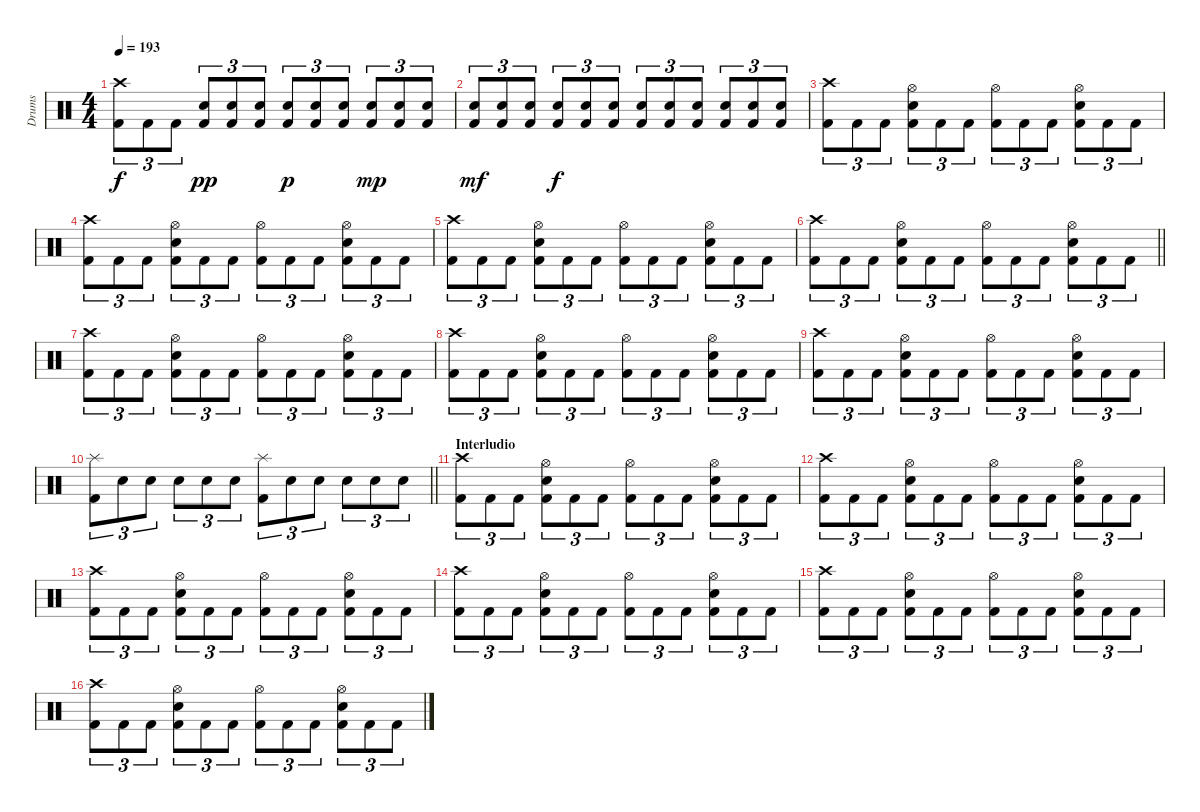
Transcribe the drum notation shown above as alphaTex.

\track ("Drums" "Drums") {instrument percussion}
\staff {score}
\articulation defaults
\ts (4 4)
\tempo 193
\clef neutral
\ks c
("Crash high (hit)" "Kick (hit) 2").8{tu (3 2) dy f} "Kick (hit) 2".8{tu (3 2)} "Kick (hit) 2".8{tu (3 2)} ("Electric Snare (hit)" "Kick (hit) 2").8{tu (3 2) dy pp} ("Electric Snare (hit)" "Kick (hit) 2").8{tu (3 2)} ("Electric Snare (hit)" "Kick (hit) 2").8{tu (3 2)} ("Electric Snare (hit)" "Kick (hit) 2").8{tu (3 2) dy p} ("Electric Snare (hit)" "Kick (hit) 2").8{tu (3 2)} ("Electric Snare (hit)" "Kick (hit) 2").8{tu (3 2)} ("Electric Snare (hit)" "Kick (hit) 2").8{tu (3 2) dy mp} ("Electric Snare (hit)" "Kick (hit) 2").8{tu (3 2)} ("Electric Snare (hit)" "Kick (hit) 2").8{tu (3 2)} |
("Electric Snare (hit)" "Kick (hit) 2").8{tu (3 2) dy mf} ("Electric Snare (hit)" "Kick (hit) 2").8{tu (3 2)} ("Electric Snare (hit)" "Kick (hit) 2").8{tu (3 2)} ("Electric Snare (hit)" "Kick (hit) 2").8{tu (3 2) dy f} ("Electric Snare (hit)" "Kick (hit) 2").8{tu (3 2)} ("Electric Snare (hit)" "Kick (hit) 2").8{tu (3 2)} ("Electric Snare (hit)" "Kick (hit) 2").8{tu (3 2)} ("Electric Snare (hit)" "Kick (hit) 2").8{tu (3 2)} ("Electric Snare (hit)" "Kick (hit) 2").8{tu (3 2)} ("Electric Snare (hit)" "Kick (hit) 2").8{tu (3 2)} ("Electric Snare (hit)" "Kick (hit) 2").8{tu (3 2)} ("Electric Snare (hit)" "Kick (hit) 2").8{tu (3 2)} |
("Crash high (hit)" "Kick (hit) 2").8{tu (3 2)} "Kick (hit) 2".8{tu (3 2)} "Kick (hit) 2".8{tu (3 2)} ("Hi-Hat (open)" "Electric Snare (hit)" "Kick (hit) 2").8{tu (3 2)} "Kick (hit) 2".8{tu (3 2)} "Kick (hit) 2".8{tu (3 2)} ("Hi-Hat (open)" "Kick (hit) 2").8{tu (3 2)} "Kick (hit) 2".8{tu (3 2)} "Kick (hit) 2".8{tu (3 2)} ("Hi-Hat (open)" "Electric Snare (hit)" "Kick (hit) 2").8{tu (3 2)} "Kick (hit) 2".8{tu (3 2)} "Kick (hit) 2".8{tu (3 2)} |
("Crash high (hit)" "Kick (hit) 2").8{tu (3 2)} "Kick (hit) 2".8{tu (3 2)} "Kick (hit) 2".8{tu (3 2)} ("Hi-Hat (open)" "Electric Snare (hit)" "Kick (hit) 2").8{tu (3 2)} "Kick (hit) 2".8{tu (3 2)} "Kick (hit) 2".8{tu (3 2)} ("Hi-Hat (open)" "Kick (hit) 2").8{tu (3 2)} "Kick (hit) 2".8{tu (3 2)} "Kick (hit) 2".8{tu (3 2)} ("Hi-Hat (open)" "Electric Snare (hit)" "Kick (hit) 2").8{tu (3 2)} "Kick (hit) 2".8{tu (3 2)} "Kick (hit) 2".8{tu (3 2)} |
("Crash high (hit)" "Kick (hit) 2").8{tu (3 2)} "Kick (hit) 2".8{tu (3 2)} "Kick (hit) 2".8{tu (3 2)} ("Hi-Hat (open)" "Electric Snare (hit)" "Kick (hit) 2").8{tu (3 2)} "Kick (hit) 2".8{tu (3 2)} "Kick (hit) 2".8{tu (3 2)} ("Hi-Hat (open)" "Kick (hit) 2").8{tu (3 2)} "Kick (hit) 2".8{tu (3 2)} "Kick (hit) 2".8{tu (3 2)} ("Hi-Hat (open)" "Electric Snare (hit)" "Kick (hit) 2").8{tu (3 2)} "Kick (hit) 2".8{tu (3 2)} "Kick (hit) 2".8{tu (3 2)} |
\barLineRight lightlight
("Crash high (hit)" "Kick (hit) 2").8{tu (3 2)} "Kick (hit) 2".8{tu (3 2)} "Kick (hit) 2".8{tu (3 2)} ("Hi-Hat (open)" "Electric Snare (hit)" "Kick (hit) 2").8{tu (3 2)} "Kick (hit) 2".8{tu (3 2)} "Kick (hit) 2".8{tu (3 2)} ("Hi-Hat (open)" "Kick (hit) 2").8{tu (3 2)} "Kick (hit) 2".8{tu (3 2)} "Kick (hit) 2".8{tu (3 2)} ("Hi-Hat (open)" "Electric Snare (hit)" "Kick (hit) 2").8{tu (3 2)} "Kick (hit) 2".8{tu (3 2)} "Kick (hit) 2".8{tu (3 2)} |
("Crash high (hit)" "Kick (hit) 2").8{tu (3 2)} "Kick (hit) 2".8{tu (3 2)} "Kick (hit) 2".8{tu (3 2)} ("Hi-Hat (open)" "Electric Snare (hit)" "Kick (hit) 2").8{tu (3 2)} "Kick (hit) 2".8{tu (3 2)} "Kick (hit) 2".8{tu (3 2)} ("Hi-Hat (open)" "Kick (hit) 2").8{tu (3 2)} "Kick (hit) 2".8{tu (3 2)} "Kick (hit) 2".8{tu (3 2)} ("Hi-Hat (open)" "Electric Snare (hit)" "Kick (hit) 2").8{tu (3 2)} "Kick (hit) 2".8{tu (3 2)} "Kick (hit) 2".8{tu (3 2)} |
("Crash high (hit)" "Kick (hit) 2").8{tu (3 2)} "Kick (hit) 2".8{tu (3 2)} "Kick (hit) 2".8{tu (3 2)} ("Hi-Hat (open)" "Electric Snare (hit)" "Kick (hit) 2").8{tu (3 2)} "Kick (hit) 2".8{tu (3 2)} "Kick (hit) 2".8{tu (3 2)} ("Hi-Hat (open)" "Kick (hit) 2").8{tu (3 2)} "Kick (hit) 2".8{tu (3 2)} "Kick (hit) 2".8{tu (3 2)} ("Hi-Hat (open)" "Electric Snare (hit)" "Kick (hit) 2").8{tu (3 2)} "Kick (hit) 2".8{tu (3 2)} "Kick (hit) 2".8{tu (3 2)} |
("Crash high (hit)" "Kick (hit) 2").8{tu (3 2)} "Kick (hit) 2".8{tu (3 2)} "Kick (hit) 2".8{tu (3 2)} ("Hi-Hat (open)" "Electric Snare (hit)" "Kick (hit) 2").8{tu (3 2)} "Kick (hit) 2".8{tu (3 2)} "Kick (hit) 2".8{tu (3 2)} ("Hi-Hat (open)" "Kick (hit) 2").8{tu (3 2)} "Kick (hit) 2".8{tu (3 2)} "Kick (hit) 2".8{tu (3 2)} ("Hi-Hat (open)" "Electric Snare (hit)" "Kick (hit) 2").8{tu (3 2)} "Kick (hit) 2".8{tu (3 2)} "Kick (hit) 2".8{tu (3 2)} |
\barLineRight lightlight
("Splash (hit)" "Kick (hit) 2").8{tu (3 2)} "Electric Snare (hit)".8{tu (3 2)} "Electric Snare (hit)".8{tu (3 2)} "Electric Snare (hit)".8{tu (3 2)} "Electric Snare (hit)".8{tu (3 2)} "Electric Snare (hit)".8{tu (3 2)} ("Splash (hit)" "Kick (hit) 2").8{tu (3 2)} "Electric Snare (hit)".8{tu (3 2)} "Electric Snare (hit)".8{tu (3 2)} "Electric Snare (hit)".8{tu (3 2)} "Electric Snare (hit)".8{tu (3 2)} "Electric Snare (hit)".8{tu (3 2)} |
\section ("" "Interludio")
("Crash high (hit)" "Kick (hit) 2").8{tu (3 2)} "Kick (hit) 2".8{tu (3 2)} "Kick (hit) 2".8{tu (3 2)} ("Hi-Hat (open)" "Electric Snare (hit)" "Kick (hit) 2").8{tu (3 2)} "Kick (hit) 2".8{tu (3 2)} "Kick (hit) 2".8{tu (3 2)} ("Hi-Hat (open)" "Kick (hit) 2").8{tu (3 2)} "Kick (hit) 2".8{tu (3 2)} "Kick (hit) 2".8{tu (3 2)} ("Hi-Hat (open)" "Electric Snare (hit)" "Kick (hit) 2").8{tu (3 2)} "Kick (hit) 2".8{tu (3 2)} "Kick (hit) 2".8{tu (3 2)} |
("Crash high (hit)" "Kick (hit) 2").8{tu (3 2)} "Kick (hit) 2".8{tu (3 2)} "Kick (hit) 2".8{tu (3 2)} ("Hi-Hat (open)" "Electric Snare (hit)" "Kick (hit) 2").8{tu (3 2)} "Kick (hit) 2".8{tu (3 2)} "Kick (hit) 2".8{tu (3 2)} ("Hi-Hat (open)" "Kick (hit) 2").8{tu (3 2)} "Kick (hit) 2".8{tu (3 2)} "Kick (hit) 2".8{tu (3 2)} ("Hi-Hat (open)" "Electric Snare (hit)" "Kick (hit) 2").8{tu (3 2)} "Kick (hit) 2".8{tu (3 2)} "Kick (hit) 2".8{tu (3 2)} |
("Crash high (hit)" "Kick (hit) 2").8{tu (3 2)} "Kick (hit) 2".8{tu (3 2)} "Kick (hit) 2".8{tu (3 2)} ("Hi-Hat (open)" "Electric Snare (hit)" "Kick (hit) 2").8{tu (3 2)} "Kick (hit) 2".8{tu (3 2)} "Kick (hit) 2".8{tu (3 2)} ("Hi-Hat (open)" "Kick (hit) 2").8{tu (3 2)} "Kick (hit) 2".8{tu (3 2)} "Kick (hit) 2".8{tu (3 2)} ("Hi-Hat (open)" "Electric Snare (hit)" "Kick (hit) 2").8{tu (3 2)} "Kick (hit) 2".8{tu (3 2)} "Kick (hit) 2".8{tu (3 2)} |
("Crash high (hit)" "Kick (hit) 2").8{tu (3 2)} "Kick (hit) 2".8{tu (3 2)} "Kick (hit) 2".8{tu (3 2)} ("Hi-Hat (open)" "Electric Snare (hit)" "Kick (hit) 2").8{tu (3 2)} "Kick (hit) 2".8{tu (3 2)} "Kick (hit) 2".8{tu (3 2)} ("Hi-Hat (open)" "Kick (hit) 2").8{tu (3 2)} "Kick (hit) 2".8{tu (3 2)} "Kick (hit) 2".8{tu (3 2)} ("Hi-Hat (open)" "Electric Snare (hit)" "Kick (hit) 2").8{tu (3 2)} "Kick (hit) 2".8{tu (3 2)} "Kick (hit) 2".8{tu (3 2)} |
("Crash high (hit)" "Kick (hit) 2").8{tu (3 2)} "Kick (hit) 2".8{tu (3 2)} "Kick (hit) 2".8{tu (3 2)} ("Hi-Hat (open)" "Electric Snare (hit)" "Kick (hit) 2").8{tu (3 2)} "Kick (hit) 2".8{tu (3 2)} "Kick (hit) 2".8{tu (3 2)} ("Hi-Hat (open)" "Kick (hit) 2").8{tu (3 2)} "Kick (hit) 2".8{tu (3 2)} "Kick (hit) 2".8{tu (3 2)} ("Hi-Hat (open)" "Electric Snare (hit)" "Kick (hit) 2").8{tu (3 2)} "Kick (hit) 2".8{tu (3 2)} "Kick (hit) 2".8{tu (3 2)} |
("Crash high (hit)" "Kick (hit) 2").8{tu (3 2)} "Kick (hit) 2".8{tu (3 2)} "Kick (hit) 2".8{tu (3 2)} ("Hi-Hat (open)" "Electric Snare (hit)" "Kick (hit) 2").8{tu (3 2)} "Kick (hit) 2".8{tu (3 2)} "Kick (hit) 2".8{tu (3 2)} ("Hi-Hat (open)" "Kick (hit) 2").8{tu (3 2)} "Kick (hit) 2".8{tu (3 2)} "Kick (hit) 2".8{tu (3 2)} ("Hi-Hat (open)" "Electric Snare (hit)" "Kick (hit) 2").8{tu (3 2)} "Kick (hit) 2".8{tu (3 2)} "Kick (hit) 2".8{tu (3 2)}
